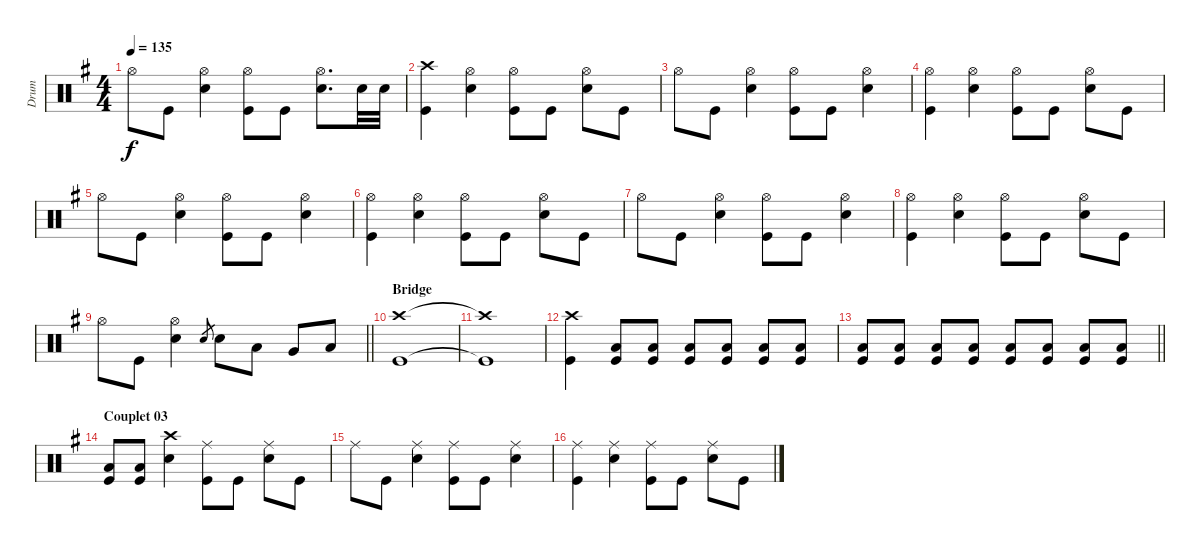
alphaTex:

\track ("Drum" "Drum") {instrument percussion}
\staff {score}
\articulation defaults
\ts (4 4)
\tempo 135
\clef neutral
\ks g "Hi-Hat (open)".8{dy f} "Kick (hit)".8
("Snare (hit) 2" "Hi-Hat (open)").4 ("Hi-Hat (open)" "Kick (hit)").8 "Kick (hit)".8 ("Snare (hit) 2" "Hi-Hat (open)").8{d} "Snare (hit) 2".32 "Snare (hit) 2".32 |
("Crash high (hit)" "Kick (hit)").4 ("Hi-Hat (open)" "Snare (hit) 2").4 ("Hi-Hat (open)" "Kick (hit)").8 "Kick (hit)".8 ("Hi-Hat (open)" "Snare (hit) 2").8 "Kick (hit)".8 |
"Hi-Hat (open)".8 "Kick (hit)".8 ("Snare (hit) 2" "Hi-Hat (open)").4 ("Hi-Hat (open)" "Kick (hit)").8 "Kick (hit)".8 ("Snare (hit) 2" "Hi-Hat (open)").4 |
("Hi-Hat (open)" "Kick (hit)").4 ("Hi-Hat (open)" "Snare (hit) 2").4 ("Hi-Hat (open)" "Kick (hit)").8 "Kick (hit)".8 ("Hi-Hat (open)" "Snare (hit) 2").8 "Kick (hit)".8 |
"Hi-Hat (open)".8 "Kick (hit)".8 ("Snare (hit) 2" "Hi-Hat (open)").4 ("Hi-Hat (open)" "Kick (hit)").8 "Kick (hit)".8 ("Snare (hit) 2" "Hi-Hat (open)").4 |
("Hi-Hat (open)" "Kick (hit)").4 ("Hi-Hat (open)" "Snare (hit) 2").4 ("Hi-Hat (open)" "Kick (hit)").8 "Kick (hit)".8 ("Hi-Hat (open)" "Snare (hit) 2").8 "Kick (hit)".8 |
"Hi-Hat (open)".8 "Kick (hit)".8 ("Snare (hit) 2" "Hi-Hat (open)").4 ("Hi-Hat (open)" "Kick (hit)").8 "Kick (hit)".8 ("Snare (hit) 2" "Hi-Hat (open)").4 |
("Hi-Hat (open)" "Kick (hit)").4 ("Hi-Hat (open)" "Snare (hit) 2").4 ("Hi-Hat (open)" "Kick (hit)").8 "Kick (hit)".8 ("Hi-Hat (open)" "Snare (hit) 2").8 "Kick (hit)".8 |
\barLineRight lightlight "Hi-Hat (open)".8 "Kick (hit)".8
("Snare (hit) 2" "Hi-Hat (open)").4 "Snare (hit) 2".8{gr} "Snare (hit) 2".8 "Low Tom (hit)".8 "Very Low Tom (hit)".8 "Low Floor Tom (hit)".8 |
\section ("" "Bridge")
("Crash high (hit)" "Kick (hit)").1 |
("Crash high (hit)"{t} "Kick (hit)"{t}).1 |
("Kick (hit)" "Crash high (hit)").4 ("Low Floor Tom (hit)" "Kick (hit)").8{volume 4} ("Low Floor Tom (hit)" "Kick (hit)").8{volume 16} ("Low Floor Tom (hit)" "Kick (hit)").8 ("Low Floor Tom (hit)" "Kick (hit)").8 ("Low Floor Tom (hit)" "Kick (hit)").8 ("Low Floor Tom (hit)" "Kick (hit)").8 |
\barLineRight lightlight
("Low Floor Tom (hit)" "Kick (hit)").8 ("Low Floor Tom (hit)" "Kick (hit)").8 ("Low Floor Tom (hit)" "Kick (hit)").8 ("Low Floor Tom (hit)" "Kick (hit)").8 ("Low Floor Tom (hit)" "Kick (hit)").8 ("Low Floor Tom (hit)" "Kick (hit)").8 ("Low Floor Tom (hit)" "Kick (hit)").8 ("Low Floor Tom (hit)" "Kick (hit)").8 |
\section ("" "Couplet 03")
("Kick (hit)" "Low Floor Tom (hit)").8 ("Kick (hit)" "Low Floor Tom (hit)").8 ("Snare (hit) 2" "Crash high (hit)").4 ("Ride (middle)" "Kick (hit)").8 "Kick (hit)".8 ("Snare (hit) 2" "Ride (middle)").8 "Kick (hit)".8 |
"Ride (middle)".8 "Kick (hit)".8 ("Snare (hit) 2" "Ride (middle)").4 ("Kick (hit)" "Ride (middle)").8 "Kick (hit)".8 ("Snare (hit) 2" "Ride (middle)").4 |
("Ride (middle)" "Kick (hit)").4 ("Snare (hit) 2" "Ride (middle)").4 ("Ride (middle)" "Kick (hit)").8 "Kick (hit)".8 ("Snare (hit) 2" "Ride (middle)").8 "Kick (hit)".8
